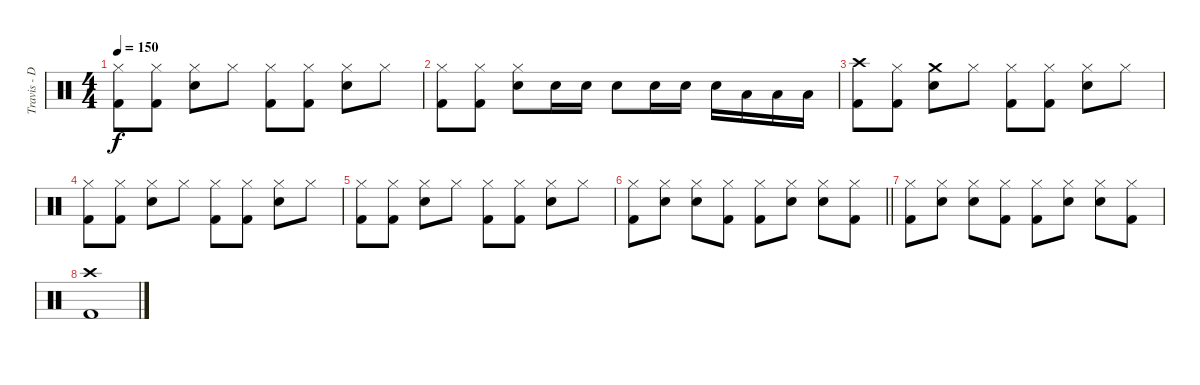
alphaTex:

\track ("Travis - Drums" "Travis - D") {instrument percussion}
\staff {score}
\articulation defaults
\ts (4 4)
\tempo 150
\clef neutral
\ks c
("Hi-Hat (closed)" "Kick (hit) 2").8{dy f} ("Hi-Hat (closed)" "Kick (hit) 2").8 ("Hi-Hat (closed)" "Electric Snare (hit)").8 "Hi-Hat (closed)".8 ("Hi-Hat (closed)" "Kick (hit) 2").8 ("Hi-Hat (closed)" "Kick (hit) 2").8 ("Hi-Hat (closed)" "Electric Snare (hit)").8 "Hi-Hat (closed)".8 |
("Hi-Hat (closed)" "Kick (hit) 2").8 ("Hi-Hat (closed)" "Kick (hit) 2").8 ("Hi-Hat (closed)" "Electric Snare (hit)").8 "Electric Snare (hit)".16 "Electric Snare (hit)".16 "Electric Snare (hit)".8 "Electric Snare (hit)".16 "Electric Snare (hit)".16 "Electric Snare (hit)".16 "Low Tom (hit)".16 "Low Tom (hit)".16 "Low Tom (hit)".16 |
("Crash high (hit)" "Kick (hit) 2").8 ("Hi-Hat (closed)" "Kick (hit) 2").8 ("Crash medium (hit)" "Electric Snare (hit)").8 "Hi-Hat (closed)".8 ("Hi-Hat (closed)" "Kick (hit) 2").8 ("Hi-Hat (closed)" "Kick (hit) 2").8 ("Hi-Hat (closed)" "Electric Snare (hit)").8 "Hi-Hat (closed)".8 |
("Hi-Hat (closed)" "Kick (hit) 2").8 ("Hi-Hat (closed)" "Kick (hit) 2").8 ("Hi-Hat (closed)" "Electric Snare (hit)").8 "Hi-Hat (closed)".8 ("Hi-Hat (closed)" "Kick (hit) 2").8 ("Hi-Hat (closed)" "Kick (hit) 2").8 ("Hi-Hat (closed)" "Electric Snare (hit)").8 "Hi-Hat (closed)".8 |
("Hi-Hat (closed)" "Kick (hit) 2").8 ("Hi-Hat (closed)" "Kick (hit) 2").8 ("Hi-Hat (closed)" "Electric Snare (hit)").8 "Hi-Hat (closed)".8 ("Hi-Hat (closed)" "Kick (hit) 2").8 ("Hi-Hat (closed)" "Kick (hit) 2").8 ("Hi-Hat (closed)" "Electric Snare (hit)").8 "Hi-Hat (closed)".8 |
\barLineRight lightlight
("Hi-Hat (closed)" "Kick (hit) 2").8 ("Hi-Hat (closed)" "Electric Snare (hit)").8 ("Hi-Hat (closed)" "Electric Snare (hit)").8 ("Hi-Hat (closed)" "Kick (hit) 2").8 ("Hi-Hat (closed)" "Kick (hit) 2").8 ("Hi-Hat (closed)" "Electric Snare (hit)").8 ("Hi-Hat (closed)" "Electric Snare (hit)").8 ("Hi-Hat (closed)" "Kick (hit) 2").8 |
("Hi-Hat (closed)" "Kick (hit) 2").8 ("Hi-Hat (closed)" "Electric Snare (hit)").8 ("Hi-Hat (closed)" "Electric Snare (hit)").8 ("Hi-Hat (closed)" "Kick (hit) 2").8 ("Hi-Hat (closed)" "Kick (hit) 2").8 ("Hi-Hat (closed)" "Electric Snare (hit)").8 ("Hi-Hat (closed)" "Electric Snare (hit)").8 ("Hi-Hat (closed)" "Kick (hit) 2").8 |
("Crash high (hit)" "Kick (hit) 2").1
